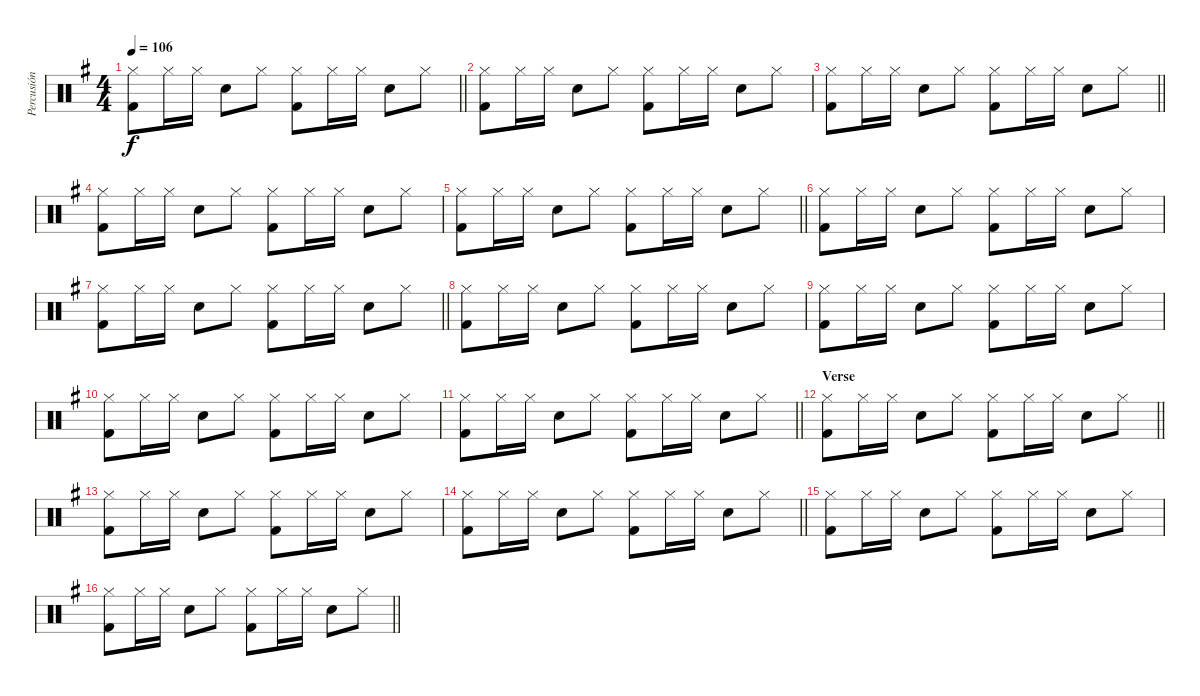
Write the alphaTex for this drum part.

\track ("Percusión" "Percusión") {instrument percussion}
\staff {score}
\articulation defaults
\ts (4 4)
\tempo 106
\clef neutral
\barLineRight lightlight
\ks g
("Kick (hit) 2" "Hi-Hat (closed)").8{dy f} "Hi-Hat (closed)".16 "Hi-Hat (closed)".16 "Electric Snare (hit)".8 "Hi-Hat (closed)".8 ("Kick (hit) 2" "Hi-Hat (closed)").8 "Hi-Hat (closed)".16 "Hi-Hat (closed)".16 "Electric Snare (hit)".8 "Hi-Hat (closed)".8 |
("Kick (hit) 2" "Hi-Hat (closed)").8 "Hi-Hat (closed)".16 "Hi-Hat (closed)".16 "Electric Snare (hit)".8 "Hi-Hat (closed)".8 ("Kick (hit) 2" "Hi-Hat (closed)").8 "Hi-Hat (closed)".16 "Hi-Hat (closed)".16 "Electric Snare (hit)".8 "Hi-Hat (closed)".8 |
\barLineRight lightlight
("Kick (hit) 2" "Hi-Hat (closed)").8 "Hi-Hat (closed)".16 "Hi-Hat (closed)".16 "Electric Snare (hit)".8 "Hi-Hat (closed)".8 ("Kick (hit) 2" "Hi-Hat (closed)").8 "Hi-Hat (closed)".16 "Hi-Hat (closed)".16 "Electric Snare (hit)".8 "Hi-Hat (closed)".8 |
("Kick (hit) 2" "Hi-Hat (closed)").8 "Hi-Hat (closed)".16 "Hi-Hat (closed)".16 "Electric Snare (hit)".8 "Hi-Hat (closed)".8 ("Kick (hit) 2" "Hi-Hat (closed)").8 "Hi-Hat (closed)".16 "Hi-Hat (closed)".16 "Electric Snare (hit)".8 "Hi-Hat (closed)".8 |
\barLineRight lightlight
("Kick (hit) 2" "Hi-Hat (closed)").8 "Hi-Hat (closed)".16 "Hi-Hat (closed)".16 "Electric Snare (hit)".8 "Hi-Hat (closed)".8 ("Kick (hit) 2" "Hi-Hat (closed)").8 "Hi-Hat (closed)".16 "Hi-Hat (closed)".16 "Electric Snare (hit)".8 "Hi-Hat (closed)".8 |
("Kick (hit) 2" "Hi-Hat (closed)").8 "Hi-Hat (closed)".16 "Hi-Hat (closed)".16 "Electric Snare (hit)".8 "Hi-Hat (closed)".8 ("Kick (hit) 2" "Hi-Hat (closed)").8 "Hi-Hat (closed)".16 "Hi-Hat (closed)".16 "Electric Snare (hit)".8 "Hi-Hat (closed)".8 |
\barLineRight lightlight
("Kick (hit) 2" "Hi-Hat (closed)").8 "Hi-Hat (closed)".16 "Hi-Hat (closed)".16 "Electric Snare (hit)".8 "Hi-Hat (closed)".8 ("Kick (hit) 2" "Hi-Hat (closed)").8 "Hi-Hat (closed)".16 "Hi-Hat (closed)".16 "Electric Snare (hit)".8 "Hi-Hat (closed)".8 |
("Kick (hit) 2" "Hi-Hat (closed)").8 "Hi-Hat (closed)".16 "Hi-Hat (closed)".16 "Electric Snare (hit)".8 "Hi-Hat (closed)".8 ("Kick (hit) 2" "Hi-Hat (closed)").8 "Hi-Hat (closed)".16 "Hi-Hat (closed)".16 "Electric Snare (hit)".8 "Hi-Hat (closed)".8 |
("Kick (hit) 2" "Hi-Hat (closed)").8 "Hi-Hat (closed)".16 "Hi-Hat (closed)".16 "Electric Snare (hit)".8 "Hi-Hat (closed)".8 ("Kick (hit) 2" "Hi-Hat (closed)").8 "Hi-Hat (closed)".16 "Hi-Hat (closed)".16 "Electric Snare (hit)".8 "Hi-Hat (closed)".8 |
("Kick (hit) 2" "Hi-Hat (closed)").8 "Hi-Hat (closed)".16 "Hi-Hat (closed)".16 "Electric Snare (hit)".8 "Hi-Hat (closed)".8 ("Kick (hit) 2" "Hi-Hat (closed)").8 "Hi-Hat (closed)".16 "Hi-Hat (closed)".16 "Electric Snare (hit)".8 "Hi-Hat (closed)".8 |
\barLineRight lightlight
("Kick (hit) 2" "Hi-Hat (closed)").8 "Hi-Hat (closed)".16 "Hi-Hat (closed)".16 "Electric Snare (hit)".8 "Hi-Hat (closed)".8 ("Kick (hit) 2" "Hi-Hat (closed)").8 "Hi-Hat (closed)".16 "Hi-Hat (closed)".16 "Electric Snare (hit)".8 "Hi-Hat (closed)".8 |
\section ("" "Verse")
\barLineRight lightlight
("Kick (hit) 2" "Hi-Hat (closed)").8 "Hi-Hat (closed)".16 "Hi-Hat (closed)".16 "Electric Snare (hit)".8 "Hi-Hat (closed)".8 ("Kick (hit) 2" "Hi-Hat (closed)").8 "Hi-Hat (closed)".16 "Hi-Hat (closed)".16 "Electric Snare (hit)".8 "Hi-Hat (closed)".8 |
("Kick (hit) 2" "Hi-Hat (closed)").8 "Hi-Hat (closed)".16 "Hi-Hat (closed)".16 "Electric Snare (hit)".8 "Hi-Hat (closed)".8 ("Kick (hit) 2" "Hi-Hat (closed)").8 "Hi-Hat (closed)".16 "Hi-Hat (closed)".16 "Electric Snare (hit)".8 "Hi-Hat (closed)".8 |
\barLineRight lightlight
("Kick (hit) 2" "Hi-Hat (closed)").8 "Hi-Hat (closed)".16 "Hi-Hat (closed)".16 "Electric Snare (hit)".8 "Hi-Hat (closed)".8 ("Kick (hit) 2" "Hi-Hat (closed)").8 "Hi-Hat (closed)".16 "Hi-Hat (closed)".16 "Electric Snare (hit)".8 "Hi-Hat (closed)".8 |
("Kick (hit) 2" "Hi-Hat (closed)").8 "Hi-Hat (closed)".16 "Hi-Hat (closed)".16 "Electric Snare (hit)".8 "Hi-Hat (closed)".8 ("Kick (hit) 2" "Hi-Hat (closed)").8 "Hi-Hat (closed)".16 "Hi-Hat (closed)".16 "Electric Snare (hit)".8 "Hi-Hat (closed)".8 |
\barLineRight lightlight
("Kick (hit) 2" "Hi-Hat (closed)").8 "Hi-Hat (closed)".16 "Hi-Hat (closed)".16 "Electric Snare (hit)".8 "Hi-Hat (closed)".8 ("Kick (hit) 2" "Hi-Hat (closed)").8 "Hi-Hat (closed)".16 "Hi-Hat (closed)".16 "Electric Snare (hit)".8 "Hi-Hat (closed)".8
